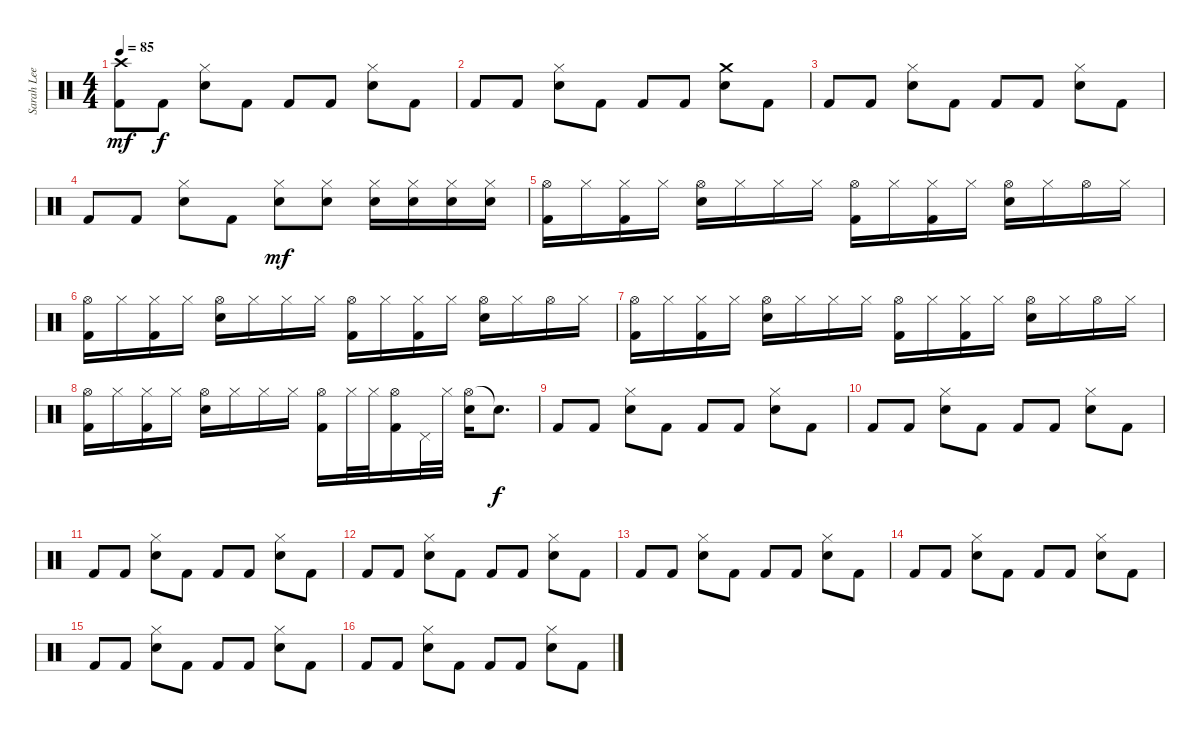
\track ("Sarah Lee Lucas" "Sarah Lee ") {instrument percussion}
\staff {score}
\articulation defaults
\ts (4 4)
\tempo 85
\clef neutral
\ks c
("Crash high (hit)" "Kick (hit) 2").8{dy mf} "Kick (hit) 2".8{dy f} ("Hi-Hat (closed)" "Electric Snare (hit)").8 "Kick (hit) 2".8 "Kick (hit) 2".8 "Kick (hit) 2".8 ("Hi-Hat (closed)" "Electric Snare (hit)").8 "Kick (hit) 2".8 |
"Kick (hit) 2".8 "Kick (hit) 2".8 ("Hi-Hat (closed)" "Electric Snare (hit)").8 "Kick (hit) 2".8 "Kick (hit) 2".8 "Kick (hit) 2".8 ("Crash medium (hit)" "Electric Snare (hit)").8 "Kick (hit) 2".8 |
"Kick (hit) 2".8 "Kick (hit) 2".8 ("Hi-Hat (closed)" "Electric Snare (hit)").8 "Kick (hit) 2".8 "Kick (hit) 2".8 "Kick (hit) 2".8 ("Hi-Hat (closed)" "Electric Snare (hit)").8 "Kick (hit) 2".8 |
"Kick (hit) 2".8 "Kick (hit) 2".8 ("Hi-Hat (closed)" "Electric Snare (hit)").8 "Kick (hit) 2".8 ("Hi-Hat (closed)" "Electric Snare (hit)").8{dy mf} ("Hi-Hat (closed)" "Electric Snare (hit)").8 ("Hi-Hat (closed)" "Electric Snare (hit)").16 ("Hi-Hat (closed)" "Electric Snare (hit)").16 ("Hi-Hat (closed)" "Electric Snare (hit)").16 ("Hi-Hat (closed)" "Electric Snare (hit)").16 |
("Hi-Hat (open)" "Kick (hit) 2").16 "Hi-Hat (closed)".16 ("Hi-Hat (closed)" "Kick (hit) 2").16 "Hi-Hat (closed)".16 ("Hi-Hat (open)" "Electric Snare (hit)").16 "Hi-Hat (closed)".16 "Hi-Hat (closed)".16 "Hi-Hat (closed)".16 ("Hi-Hat (open)" "Kick (hit) 2").16 "Hi-Hat (closed)".16 ("Hi-Hat (closed)" "Kick (hit) 2").16 "Hi-Hat (closed)".16 ("Hi-Hat (open)" "Electric Snare (hit)").16 "Hi-Hat (closed)".16 "Hi-Hat (open)".16 "Hi-Hat (closed)".16 |
("Hi-Hat (open)" "Kick (hit) 2").16 "Hi-Hat (closed)".16 ("Hi-Hat (closed)" "Kick (hit) 2").16 "Hi-Hat (closed)".16 ("Hi-Hat (open)" "Electric Snare (hit)").16 "Hi-Hat (closed)".16 "Hi-Hat (closed)".16 "Hi-Hat (closed)".16 ("Hi-Hat (open)" "Kick (hit) 2").16 "Hi-Hat (closed)".16 ("Hi-Hat (closed)" "Kick (hit) 2").16 "Hi-Hat (closed)".16 ("Hi-Hat (open)" "Electric Snare (hit)").16 "Hi-Hat (closed)".16 "Hi-Hat (open)".16 "Hi-Hat (closed)".16 |
("Hi-Hat (open)" "Kick (hit) 2").16 "Hi-Hat (closed)".16 ("Hi-Hat (closed)" "Kick (hit) 2").16 "Hi-Hat (closed)".16 ("Hi-Hat (open)" "Electric Snare (hit)").16 "Hi-Hat (closed)".16 "Hi-Hat (closed)".16 "Hi-Hat (closed)".16 ("Hi-Hat (open)" "Kick (hit) 2").16 "Hi-Hat (closed)".16 ("Hi-Hat (closed)" "Kick (hit) 2").16 "Hi-Hat (closed)".16 ("Hi-Hat (open)" "Electric Snare (hit)").16 "Hi-Hat (closed)".16 "Hi-Hat (open)".16 "Hi-Hat (closed)".16 |
("Hi-Hat (open)" "Kick (hit) 2").16 "Hi-Hat (closed)".16 ("Hi-Hat (closed)" "Kick (hit) 2").16 "Hi-Hat (closed)".16 ("Hi-Hat (open)" "Electric Snare (hit)").16 "Hi-Hat (closed)".16 "Hi-Hat (closed)".16 "Hi-Hat (closed)".16 ("Hi-Hat (open)" "Kick (hit) 2").16 "Hi-Hat (closed)".32 "Hi-Hat (closed)".32 ("Hi-Hat (open)" "Kick (hit) 2").16 "Pedal Hi-Hat (hit)".32 "Hi-Hat (closed)".32 ("Hi-Hat (open)" "Electric Snare (hit)").16 "Snare (hit)"{t}.8{d dy f} |
"Kick (hit) 2".8 "Kick (hit) 2".8 ("Hi-Hat (closed)" "Electric Snare (hit)").8 "Kick (hit) 2".8 "Kick (hit) 2".8 "Kick (hit) 2".8 ("Hi-Hat (closed)" "Electric Snare (hit)").8 "Kick (hit) 2".8 |
"Kick (hit) 2".8 "Kick (hit) 2".8 ("Hi-Hat (closed)" "Electric Snare (hit)").8 "Kick (hit) 2".8 "Kick (hit) 2".8 "Kick (hit) 2".8 ("Hi-Hat (closed)" "Electric Snare (hit)").8 "Kick (hit) 2".8 |
"Kick (hit) 2".8 "Kick (hit) 2".8 ("Hi-Hat (closed)" "Electric Snare (hit)").8 "Kick (hit) 2".8 "Kick (hit) 2".8 "Kick (hit) 2".8 ("Hi-Hat (closed)" "Electric Snare (hit)").8 "Kick (hit) 2".8 |
"Kick (hit) 2".8 "Kick (hit) 2".8 ("Hi-Hat (closed)" "Electric Snare (hit)").8 "Kick (hit) 2".8 "Kick (hit) 2".8 "Kick (hit) 2".8 ("Hi-Hat (closed)" "Electric Snare (hit)").8 "Kick (hit) 2".8 |
"Kick (hit) 2".8 "Kick (hit) 2".8 ("Hi-Hat (closed)" "Electric Snare (hit)").8 "Kick (hit) 2".8 "Kick (hit) 2".8 "Kick (hit) 2".8 ("Hi-Hat (closed)" "Electric Snare (hit)").8 "Kick (hit) 2".8 |
"Kick (hit) 2".8 "Kick (hit) 2".8 ("Hi-Hat (closed)" "Electric Snare (hit)").8 "Kick (hit) 2".8 "Kick (hit) 2".8 "Kick (hit) 2".8 ("Hi-Hat (closed)" "Electric Snare (hit)").8 "Kick (hit) 2".8 |
"Kick (hit) 2".8 "Kick (hit) 2".8 ("Hi-Hat (closed)" "Electric Snare (hit)").8 "Kick (hit) 2".8 "Kick (hit) 2".8 "Kick (hit) 2".8 ("Hi-Hat (closed)" "Electric Snare (hit)").8 "Kick (hit) 2".8 |
"Kick (hit) 2".8 "Kick (hit) 2".8 ("Hi-Hat (closed)" "Electric Snare (hit)").8 "Kick (hit) 2".8 "Kick (hit) 2".8 "Kick (hit) 2".8 ("Hi-Hat (closed)" "Electric Snare (hit)").8 "Kick (hit) 2".8
